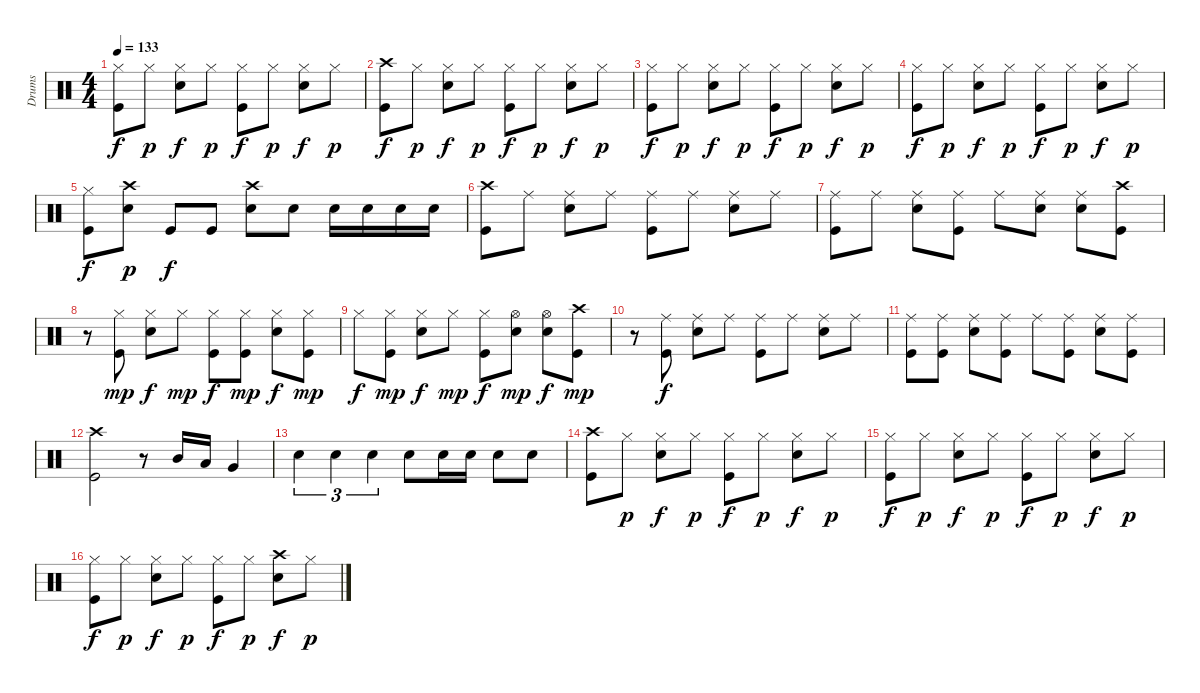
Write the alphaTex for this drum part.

\track ("Drums" "Drums") {instrument percussion}
\staff {score}
\articulation defaults
\ts (4 4)
\tempo 133
\clef neutral
\ks c
("Hi-Hat (closed)" "Kick (hit)").8{dy f} "Hi-Hat (closed)".8{dy p} ("Hi-Hat (closed)" "Snare (hit) 2").8{dy f} "Hi-Hat (closed)".8{dy p} ("Hi-Hat (closed)" "Kick (hit)").8{dy f} "Hi-Hat (closed)".8{dy p} ("Hi-Hat (closed)" "Snare (hit) 2").8{dy f} "Hi-Hat (closed)".8{dy p} |
("Crash high (hit)" "Kick (hit)").8{dy f} "Hi-Hat (closed)".8{dy p} ("Hi-Hat (closed)" "Snare (hit) 2").8{dy f} "Hi-Hat (closed)".8{dy p} ("Hi-Hat (closed)" "Kick (hit)").8{dy f} "Hi-Hat (closed)".8{dy p} ("Hi-Hat (closed)" "Snare (hit) 2").8{dy f} "Hi-Hat (closed)".8{dy p} |
("Hi-Hat (closed)" "Kick (hit)").8{dy f} "Hi-Hat (closed)".8{dy p} ("Hi-Hat (closed)" "Snare (hit) 2").8{dy f} "Hi-Hat (closed)".8{dy p} ("Hi-Hat (closed)" "Kick (hit)").8{dy f} "Hi-Hat (closed)".8{dy p} ("Hi-Hat (closed)" "Snare (hit) 2").8{dy f} "Hi-Hat (closed)".8{dy p} |
("Hi-Hat (closed)" "Kick (hit)").8{dy f} "Hi-Hat (closed)".8{dy p} ("Hi-Hat (closed)" "Snare (hit) 2").8{dy f} "Hi-Hat (closed)".8{dy p} ("Hi-Hat (closed)" "Kick (hit)").8{dy f} "Hi-Hat (closed)".8{dy p} ("Hi-Hat (closed)" "Snare (hit) 2").8{dy f} "Hi-Hat (closed)".8{dy p} |
("Hi-Hat (closed)" "Kick (hit)").8{dy f} ("Crash high (hit)" "Snare (hit) 2").8{dy p} "Kick (hit)".8{dy f} "Kick (hit)".8 ("Crash high (hit)" "Snare (hit) 2").8 "Snare (hit) 2".8 "Snare (hit) 2".16 "Snare (hit) 2".16 "Snare (hit) 2".16 "Snare (hit) 2".16 |
("Crash high (hit)" "Kick (hit)").8 "Ride (middle)".8 ("Ride (middle)" "Snare (hit) 2").8 "Ride (middle)".8 ("Ride (middle)" "Kick (hit)").8 "Ride (middle)".8 ("Ride (middle)" "Snare (hit) 2").8 "Ride (middle)".8 |
("Ride (middle)" "Kick (hit)").8 "Ride (middle)".8 ("Ride (middle)" "Snare (hit) 2").8 ("Ride (middle)" "Kick (hit)").8 "Ride (middle)".8 ("Ride (middle)" "Snare (hit) 2").8 ("Ride (middle)" "Snare (hit) 2").8 ("Crash high (hit)" "Kick (hit)").8 |
r.8 ("Hi-Hat (closed)" "Kick (hit)").8{dy mp} ("Hi-Hat (closed)" "Snare (hit) 2").8{dy f} "Hi-Hat (closed)".8{dy mp} ("Hi-Hat (closed)" "Kick (hit)").8{dy f} ("Hi-Hat (closed)" "Kick (hit)").8{dy mp} ("Hi-Hat (closed)" "Snare (hit) 2").8{dy f} ("Hi-Hat (closed)" "Kick (hit)").8{dy mp} |
"Hi-Hat (closed)".8{dy f} ("Hi-Hat (closed)" "Kick (hit)").8{dy mp} ("Hi-Hat (closed)" "Snare (hit) 2").8{dy f} "Hi-Hat (closed)".8{dy mp} ("Hi-Hat (closed)" "Kick (hit)").8{dy f} ("Hi-Hat (open)" "Snare (hit) 2").8{dy mp} ("Hi-Hat (open)" "Snare (hit) 2").8{dy f} ("Crash high (hit)" "Kick (hit)").8{dy mp} |
r.8 ("Ride (middle)" "Kick (hit)").8{dy f} ("Ride (middle)" "Snare (hit) 2").8 "Ride (middle)".8 ("Ride (middle)" "Kick (hit)").8 "Ride (middle)".8 ("Ride (middle)" "Snare (hit) 2").8 "Ride (middle)".8 |
("Ride (middle)" "Kick (hit)").8 ("Ride (middle)" "Kick (hit)").8 ("Ride (middle)" "Snare (hit) 2").8 ("Ride (middle)" "Kick (hit)").8 "Ride (middle)".8 ("Ride (middle)" "Kick (hit)").8 ("Ride (middle)" "Snare (hit) 2").8 ("Ride (middle)" "Kick (hit)").8 |
("Crash high (hit)" "Kick (hit)").2 r.8 "Mid Tom (hit)".16 "Low Tom (hit)".16 "Very Low Tom (hit)".4 |
"Hand Clap (hit)".4{tu (3 2)} "Hand Clap (hit)".4{tu (3 2)} "Hand Clap (hit)".4{tu (3 2)} "Hand Clap (hit)".8 "Snare (hit) 2".16 "Snare (hit) 2".16 "Snare (hit) 2".8 "Snare (hit) 2".8 |
("Crash high (hit)" "Kick (hit)").8 "Hi-Hat (closed)".8{dy p} ("Hi-Hat (closed)" "Snare (hit) 2").8{dy f} "Hi-Hat (closed)".8{dy p} ("Hi-Hat (closed)" "Kick (hit)").8{dy f} "Hi-Hat (closed)".8{dy p} ("Hi-Hat (closed)" "Snare (hit) 2").8{dy f} "Hi-Hat (closed)".8{dy p} |
("Hi-Hat (closed)" "Kick (hit)").8{dy f} "Hi-Hat (closed)".8{dy p} ("Hi-Hat (closed)" "Snare (hit) 2").8{dy f} "Hi-Hat (closed)".8{dy p} ("Hi-Hat (closed)" "Kick (hit)").8{dy f} "Hi-Hat (closed)".8{dy p} ("Hi-Hat (closed)" "Snare (hit) 2").8{dy f} "Hi-Hat (closed)".8{dy p} |
("Hi-Hat (closed)" "Kick (hit)").8{dy f} "Hi-Hat (closed)".8{dy p} ("Hi-Hat (closed)" "Snare (hit) 2").8{dy f} "Hi-Hat (closed)".8{dy p} ("Hi-Hat (closed)" "Kick (hit)").8{dy f} "Hi-Hat (closed)".8{dy p} ("Crash high (hit)" "Snare (hit) 2").8{dy f} "Hi-Hat (closed)".8{dy p}
